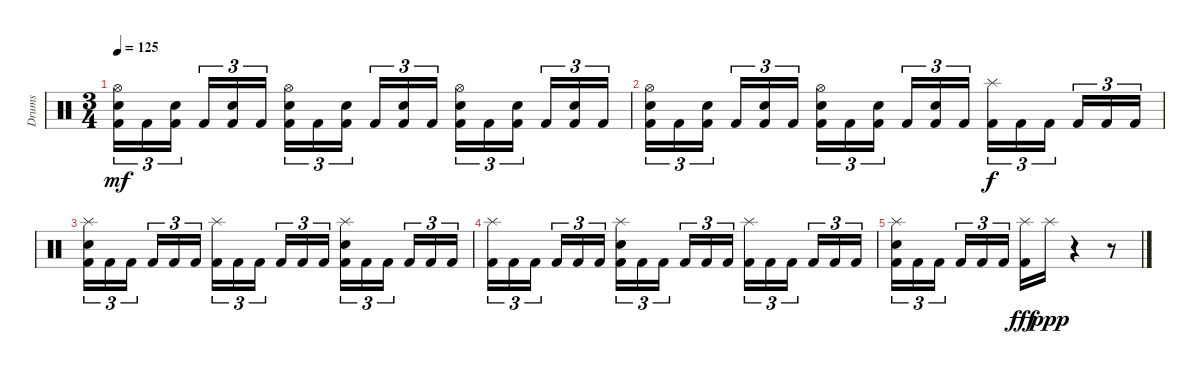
\track ("Drums" "Drums") {instrument percussion}
\staff {score}
\articulation defaults
\ts (3 4)
\tempo 125
\clef neutral
\ks c
("Hi-Hat (open)" "Electric Snare (hit)" "Kick (hit) 2").16{tu (3 2) dy mf} "Kick (hit) 2".16{tu (3 2)} ("Electric Snare (hit)" "Kick (hit) 2").16{tu (3 2) beam splitsecondary} "Kick (hit) 2".16{tu (3 2)} ("Electric Snare (hit)" "Kick (hit) 2").16{tu (3 2)} "Kick (hit) 2".16{tu (3 2)} ("Hi-Hat (open)" "Electric Snare (hit)" "Kick (hit) 2").16{tu (3 2)} "Kick (hit) 2".16{tu (3 2)} ("Electric Snare (hit)" "Kick (hit) 2").16{tu (3 2) beam splitsecondary} "Kick (hit) 2".16{tu (3 2)} ("Electric Snare (hit)" "Kick (hit) 2").16{tu (3 2)} "Kick (hit) 2".16{tu (3 2)} ("Hi-Hat (open)" "Electric Snare (hit)" "Kick (hit) 2").16{tu (3 2)} "Kick (hit) 2".16{tu (3 2)} ("Electric Snare (hit)" "Kick (hit) 2").16{tu (3 2) beam splitsecondary} "Kick (hit) 2".16{tu (3 2)} ("Electric Snare (hit)" "Kick (hit) 2").16{tu (3 2)} "Kick (hit) 2".16{tu (3 2)} |
("Hi-Hat (open)" "Electric Snare (hit)" "Kick (hit) 2").16{tu (3 2)} "Kick (hit) 2".16{tu (3 2)} ("Electric Snare (hit)" "Kick (hit) 2").16{tu (3 2) beam splitsecondary} "Kick (hit) 2".16{tu (3 2)} ("Electric Snare (hit)" "Kick (hit) 2").16{tu (3 2)} "Kick (hit) 2".16{tu (3 2)} ("Hi-Hat (open)" "Electric Snare (hit)" "Kick (hit) 2").16{tu (3 2)} "Kick (hit) 2".16{tu (3 2)} ("Electric Snare (hit)" "Kick (hit) 2").16{tu (3 2) beam splitsecondary} "Kick (hit) 2".16{tu (3 2)} ("Electric Snare (hit)" "Kick (hit) 2").16{tu (3 2)} "Kick (hit) 2".16{tu (3 2)} ("Splash (hit)" "Kick (hit) 2").16{tu (3 2) dy f} "Kick (hit) 2".16{tu (3 2)} "Kick (hit) 2".16{tu (3 2) beam splitsecondary} "Kick (hit) 2".16{tu (3 2)} "Kick (hit) 2".16{tu (3 2)} "Kick (hit) 2".16{tu (3 2)} |
("Splash (hit)" "Electric Snare (hit)" "Kick (hit) 2").16{tu (3 2)} "Kick (hit) 2".16{tu (3 2)} "Kick (hit) 2".16{tu (3 2) beam splitsecondary} "Kick (hit) 2".16{tu (3 2)} "Kick (hit) 2".16{tu (3 2)} "Kick (hit) 2".16{tu (3 2)} ("Splash (hit)" "Kick (hit) 2").16{tu (3 2)} "Kick (hit) 2".16{tu (3 2)} "Kick (hit) 2".16{tu (3 2) beam splitsecondary} "Kick (hit) 2".16{tu (3 2)} "Kick (hit) 2".16{tu (3 2)} "Kick (hit) 2".16{tu (3 2)} ("Splash (hit)" "Electric Snare (hit)" "Kick (hit) 2").16{tu (3 2)} "Kick (hit) 2".16{tu (3 2)} "Kick (hit) 2".16{tu (3 2) beam splitsecondary} "Kick (hit) 2".16{tu (3 2)} "Kick (hit) 2".16{tu (3 2)} "Kick (hit) 2".16{tu (3 2)} |
("Splash (hit)" "Kick (hit) 2").16{tu (3 2)} "Kick (hit) 2".16{tu (3 2)} "Kick (hit) 2".16{tu (3 2) beam splitsecondary} "Kick (hit) 2".16{tu (3 2)} "Kick (hit) 2".16{tu (3 2)} "Kick (hit) 2".16{tu (3 2)} ("Splash (hit)" "Electric Snare (hit)" "Kick (hit) 2").16{tu (3 2)} "Kick (hit) 2".16{tu (3 2)} "Kick (hit) 2".16{tu (3 2) beam splitsecondary} "Kick (hit) 2".16{tu (3 2)} "Kick (hit) 2".16{tu (3 2)} "Kick (hit) 2".16{tu (3 2)} ("Splash (hit)" "Kick (hit) 2").16{tu (3 2)} "Kick (hit) 2".16{tu (3 2)} "Kick (hit) 2".16{tu (3 2) beam splitsecondary} "Kick (hit) 2".16{tu (3 2)} "Kick (hit) 2".16{tu (3 2)} "Kick (hit) 2".16{tu (3 2)} |
("Splash (hit)" "Electric Snare (hit)" "Kick (hit) 2").16{tu (3 2)} "Kick (hit) 2".16{tu (3 2)} "Kick (hit) 2".16{tu (3 2) beam splitsecondary} "Kick (hit) 2".16{tu (3 2)} "Kick (hit) 2".16{tu (3 2)} "Kick (hit) 2".16{tu (3 2)} ("Splash (hit)" "Kick (hit) 2").16{dy fff} "Splash (hit)".16{dy ppp volume 0} r.4 r.8
